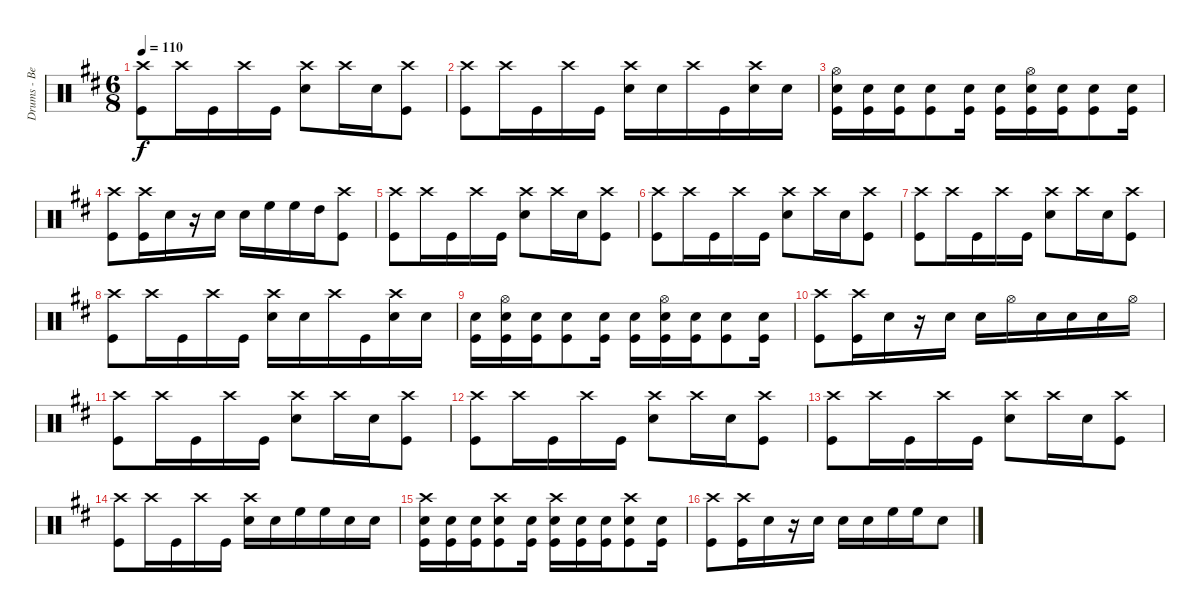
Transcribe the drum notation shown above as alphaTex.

\track ("Drums - Ben Johnston" "Drums - Be") {instrument percussion}
\staff {score}
\articulation defaults
\ts (6 8)
\tempo 110
\clef neutral
\ks d
("Crash high (hit)" "Kick (hit)").8{dy f} "Crash high (hit)".16 "Kick (hit)".16 "Crash high (hit)".16 "Kick (hit)".16 ("Crash high (hit)" "Snare (hit) 2").8 "Crash high (hit)".16 "Snare (hit) 2".16 ("Crash high (hit)" "Kick (hit)").8 |
("Crash high (hit)" "Kick (hit)").8 "Crash high (hit)".16 "Kick (hit)".16 "Crash high (hit)".16 "Kick (hit)".16 ("Crash high (hit)" "Snare (hit) 2").16 "Snare (hit) 2".16 "Crash high (hit)".16 "Kick (hit)".16 ("Crash high (hit)" "Snare (hit) 2").16 "Snare (hit) 2".16 |
("Hi-Hat (open)" "Snare (hit) 2" "Kick (hit)").16 ("Snare (hit) 2" "Kick (hit)").16 ("Snare (hit) 2" "Kick (hit)").16 ("Snare (hit) 2" "Kick (hit)").8 ("Snare (hit) 2" "Kick (hit)").16 ("Snare (hit) 2" "Kick (hit)").16 ("Hi-Hat (open)" "Snare (hit) 2" "Kick (hit)").16 ("Snare (hit) 2" "Kick (hit)").16 ("Snare (hit) 2" "Kick (hit)").8 ("Snare (hit) 2" "Kick (hit)").16 |
("Crash high (hit)" "Kick (hit)").8 ("Crash high (hit)" "Kick (hit)").16 "Snare (hit) 2".16 r.16 "Snare (hit) 2".16 "Snare (hit) 2".16 "High Floor Tom (hit)".16 "High Floor Tom (hit)".16 "High Tom (hit)".16 ("Crash high (hit)" "Kick (hit)").8 |
("Crash high (hit)" "Kick (hit)").8 "Crash high (hit)".16 "Kick (hit)".16 "Crash high (hit)".16 "Kick (hit)".16 ("Crash high (hit)" "Snare (hit) 2").8 "Crash high (hit)".16 "Snare (hit) 2".16 ("Crash high (hit)" "Kick (hit)").8 |
("Crash high (hit)" "Kick (hit)").8 "Crash high (hit)".16 "Kick (hit)".16 "Crash high (hit)".16 "Kick (hit)".16 ("Crash high (hit)" "Snare (hit) 2").8 "Crash high (hit)".16 "Snare (hit) 2".16 ("Crash high (hit)" "Kick (hit)").8 |
("Crash high (hit)" "Kick (hit)").8 "Crash high (hit)".16 "Kick (hit)".16 "Crash high (hit)".16 "Kick (hit)".16 ("Crash high (hit)" "Snare (hit) 2").8 "Crash high (hit)".16 "Snare (hit) 2".16 ("Crash high (hit)" "Kick (hit)").8 |
("Crash high (hit)" "Kick (hit)").8 "Crash high (hit)".16 "Kick (hit)".16 "Crash high (hit)".16 "Kick (hit)".16 ("Crash high (hit)" "Snare (hit) 2").16 "Snare (hit) 2".16 "Crash high (hit)".16 "Kick (hit)".16 ("Crash high (hit)" "Snare (hit) 2").16 "Snare (hit) 2".16 |
("Snare (hit) 2" "Kick (hit)").16 ("Hi-Hat (open)" "Snare (hit) 2" "Kick (hit)").16 ("Snare (hit) 2" "Kick (hit)").16 ("Snare (hit) 2" "Kick (hit)").8 ("Snare (hit) 2" "Kick (hit)").16 ("Snare (hit) 2" "Kick (hit)").16 ("Hi-Hat (open)" "Snare (hit) 2" "Kick (hit)").16 ("Snare (hit) 2" "Kick (hit)").16 ("Snare (hit) 2" "Kick (hit)").8 ("Snare (hit) 2" "Kick (hit)").16 |
("Crash high (hit)" "Kick (hit)").8 ("Crash high (hit)" "Kick (hit)").16 "Snare (hit) 2".16 r.16 "Snare (hit) 2".16 "Snare (hit) 2".16 "Hi-Hat (open)".16 "Snare (hit) 2".16 "Snare (hit) 2".16 "Snare (hit) 2".16 "Hi-Hat (open)".16 |
("Crash high (hit)" "Kick (hit)").8 "Crash high (hit)".16 "Kick (hit)".16 "Crash high (hit)".16 "Kick (hit)".16 ("Crash high (hit)" "Snare (hit) 2").8 "Crash high (hit)".16 "Snare (hit) 2".16 ("Crash high (hit)" "Kick (hit)").8 |
("Crash high (hit)" "Kick (hit)").8 "Crash high (hit)".16 "Kick (hit)".16 "Crash high (hit)".16 "Kick (hit)".16 ("Crash high (hit)" "Snare (hit) 2").8 "Crash high (hit)".16 "Snare (hit) 2".16 ("Crash high (hit)" "Kick (hit)").8 |
("Crash high (hit)" "Kick (hit)").8 "Crash high (hit)".16 "Kick (hit)".16 "Crash high (hit)".16 "Kick (hit)".16 ("Crash high (hit)" "Snare (hit) 2").8 "Crash high (hit)".16 "Snare (hit) 2".16 ("Crash high (hit)" "Kick (hit)").8 |
("Crash high (hit)" "Kick (hit)").8 "Crash high (hit)".16 "Kick (hit)".16 "Crash high (hit)".16 "Kick (hit)".16 ("Crash high (hit)" "Snare (hit) 2").16 "Snare (hit) 2".16 "High Floor Tom (hit)".16 "High Floor Tom (hit)".16 "Snare (hit) 2".16 "Snare (hit) 2".16 |
("Crash high (hit)" "Snare (hit) 2" "Kick (hit)").16 ("Snare (hit) 2" "Kick (hit)").16 ("Snare (hit) 2" "Kick (hit)").16 ("Crash high (hit)" "Snare (hit) 2" "Kick (hit)").8 ("Snare (hit) 2" "Kick (hit)").16 ("Crash high (hit)" "Snare (hit) 2" "Kick (hit)").16 ("Snare (hit) 2" "Kick (hit)").16 ("Snare (hit) 2" "Kick (hit)").16 ("Crash high (hit)" "Snare (hit) 2" "Kick (hit)").8 ("Snare (hit) 2" "Kick (hit)").16 |
("Crash high (hit)" "Kick (hit)").8 ("Crash high (hit)" "Kick (hit)").16 "Snare (hit) 2".16 r.16 "Snare (hit) 2".16 "Snare (hit) 2".16 "Snare (hit) 2".16 "High Floor Tom (hit)".16 "High Floor Tom (hit)".16 "Snare (hit) 2".8
